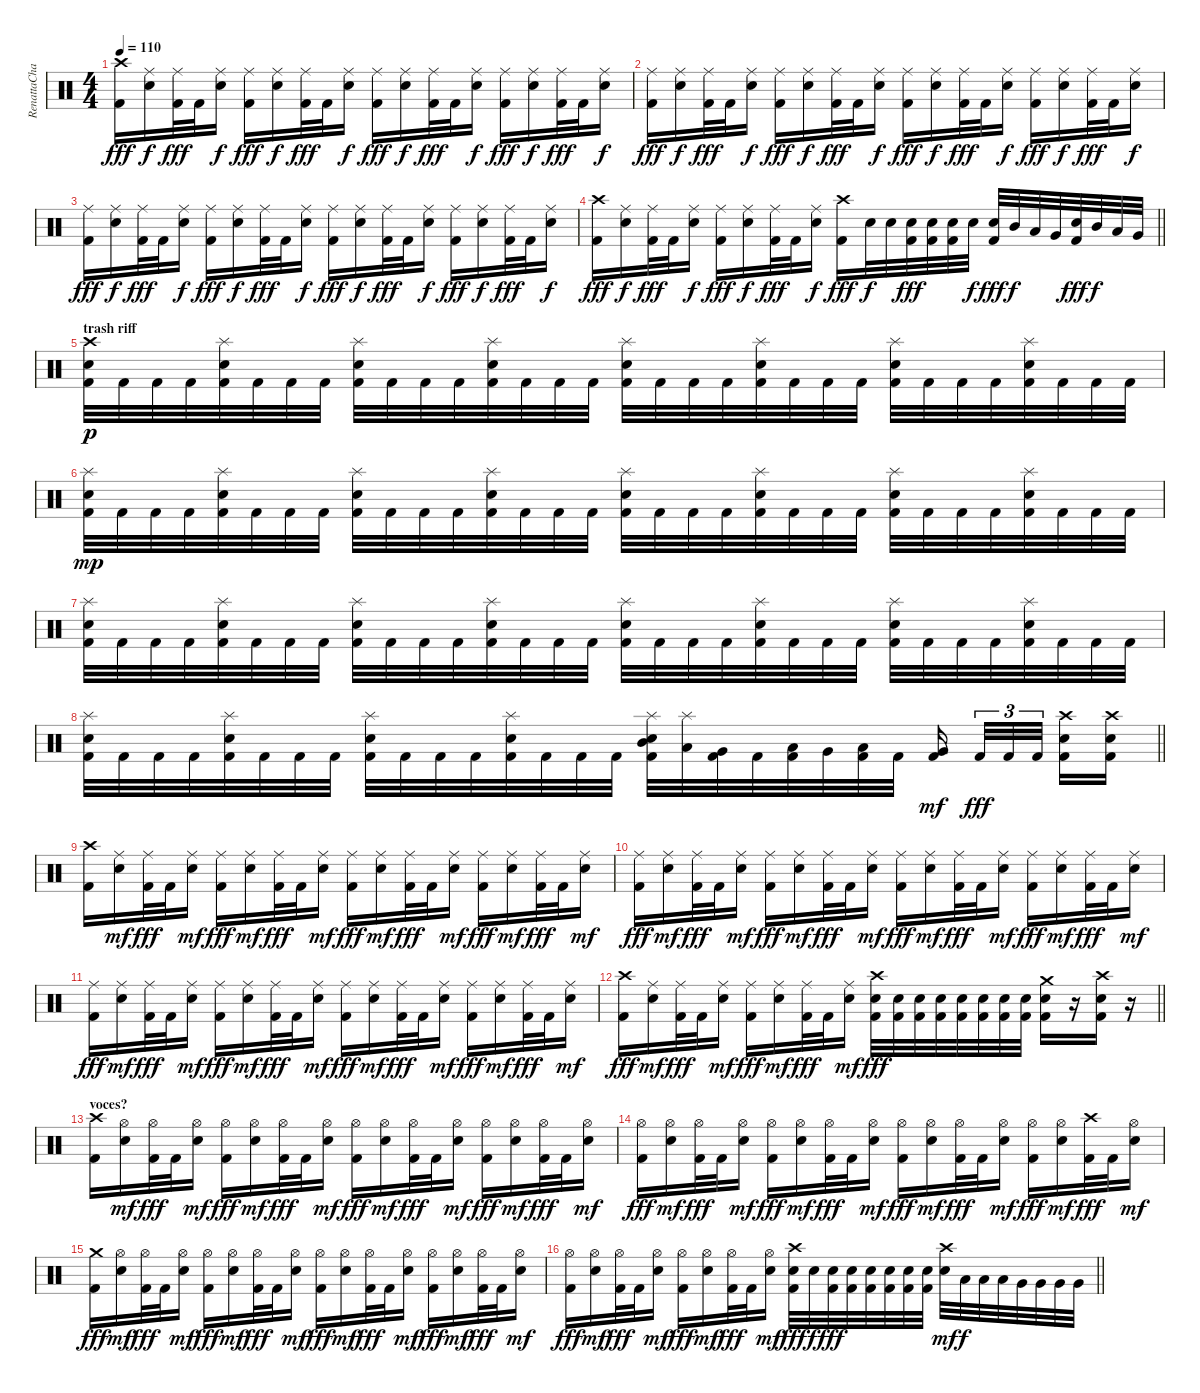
\track ("RenattaCharat" "RenattaCha") {instrument percussion}
\staff {score}
\articulation defaults
\ts (4 4)
\tempo 110
\clef neutral
\ks c
("Crash high (hit)" "Kick (hit) 2").16{dy fff} ("Ride (middle)" "Snare (hit) 2").16{dy f} ("Ride (middle)" "Kick (hit) 2").32{dy fff} "Kick (hit) 2".32 ("Ride (middle)" "Snare (hit) 2").16{dy f} ("Ride (middle)" "Kick (hit) 2").16{dy fff} ("Ride (middle)" "Snare (hit) 2").16{dy f} ("Ride (middle)" "Kick (hit) 2").32{dy fff} "Kick (hit) 2".32 ("Ride (middle)" "Snare (hit) 2").16{dy f} ("Ride (middle)" "Kick (hit) 2").16{dy fff} ("Ride (middle)" "Snare (hit) 2").16{dy f} ("Ride (middle)" "Kick (hit) 2").32{dy fff} "Kick (hit) 2".32 ("Ride (middle)" "Snare (hit) 2").16{dy f} ("Ride (middle)" "Kick (hit) 2").16{dy fff} ("Ride (middle)" "Snare (hit) 2").16{dy f} ("Ride (middle)" "Kick (hit) 2").32{dy fff} "Kick (hit) 2".32 ("Ride (middle)" "Snare (hit) 2").16{dy f} |
("Ride (middle)" "Kick (hit) 2").16{dy fff} ("Ride (middle)" "Snare (hit) 2").16{dy f} ("Ride (middle)" "Kick (hit) 2").32{dy fff} "Kick (hit) 2".32 ("Ride (middle)" "Snare (hit) 2").16{dy f} ("Ride (middle)" "Kick (hit) 2").16{dy fff} ("Ride (middle)" "Snare (hit) 2").16{dy f} ("Ride (middle)" "Kick (hit) 2").32{dy fff} "Kick (hit) 2".32 ("Ride (middle)" "Snare (hit) 2").16{dy f} ("Ride (middle)" "Kick (hit) 2").16{dy fff} ("Ride (middle)" "Snare (hit) 2").16{dy f} ("Ride (middle)" "Kick (hit) 2").32{dy fff} "Kick (hit) 2".32 ("Ride (middle)" "Snare (hit) 2").16{dy f} ("Ride (middle)" "Kick (hit) 2").16{dy fff} ("Ride (middle)" "Snare (hit) 2").16{dy f} ("Ride (middle)" "Kick (hit) 2").32{dy fff} "Kick (hit) 2".32 ("Ride (middle)" "Snare (hit) 2").16{dy f} |
("Ride (middle)" "Kick (hit) 2").16{dy fff} ("Ride (middle)" "Snare (hit) 2").16{dy f} ("Ride (middle)" "Kick (hit) 2").32{dy fff} "Kick (hit) 2".32 ("Ride (middle)" "Snare (hit) 2").16{dy f} ("Ride (middle)" "Kick (hit) 2").16{dy fff} ("Ride (middle)" "Snare (hit) 2").16{dy f} ("Ride (middle)" "Kick (hit) 2").32{dy fff} "Kick (hit) 2".32 ("Ride (middle)" "Snare (hit) 2").16{dy f} ("Ride (middle)" "Kick (hit) 2").16{dy fff} ("Ride (middle)" "Snare (hit) 2").16{dy f} ("Ride (middle)" "Kick (hit) 2").32{dy fff} "Kick (hit) 2".32 ("Ride (middle)" "Snare (hit) 2").16{dy f} ("Ride (middle)" "Kick (hit) 2").16{dy fff} ("Ride (middle)" "Snare (hit) 2").16{dy f} ("Ride (middle)" "Kick (hit) 2").32{dy fff} "Kick (hit) 2".32 ("Ride (middle)" "Snare (hit) 2").16{dy f} |
\barLineRight lightlight
("Crash high (hit)" "Kick (hit) 2").16{dy fff} ("Ride (middle)" "Snare (hit) 2").16{dy f} ("Ride (middle)" "Kick (hit) 2").32{dy fff} "Kick (hit) 2".32 ("Ride (middle)" "Snare (hit) 2").16{dy f} ("Ride (middle)" "Kick (hit) 2").16{dy fff} ("Ride (middle)" "Snare (hit) 2").16{dy f} ("Ride (middle)" "Kick (hit) 2").32{dy fff} "Kick (hit) 2".32 ("Ride (middle)" "Snare (hit) 2").16{dy f} ("Crash high (hit)" "Kick (hit) 2").16{dy fff} "Snare (hit) 2".32{dy f} "Snare (hit) 2".32 ("Snare (hit) 2" "Kick (hit) 2").32{dy fff} ("Snare (hit) 2" "Kick (hit) 2").32 ("Snare (hit) 2" "Kick (hit) 2").32 "Snare (hit) 2".32{dy f} ("Snare (hit) 2" "Kick (hit) 2").32{dy fff} "Mid Tom (hit)".32{dy f} "Low Tom (hit)".32 "Very Low Tom (hit)".32 ("Snare (hit) 2" "Kick (hit) 2").32{dy fff} "Mid Tom (hit)".32{dy f} "Low Tom (hit)".32 "Very Low Tom (hit)".32 |
\section ("" "trash riff")
("Crash high (hit)" "Snare (hit) 2" "Kick (hit) 2").32{dy p} "Kick (hit) 2".32 "Kick (hit) 2".32 "Kick (hit) 2".32 ("Splash (hit)" "Snare (hit) 2" "Kick (hit) 2").32 "Kick (hit) 2".32 "Kick (hit) 2".32 "Kick (hit) 2".32 ("Splash (hit)" "Snare (hit) 2" "Kick (hit) 2").32 "Kick (hit) 2".32 "Kick (hit) 2".32 "Kick (hit) 2".32 ("Splash (hit)" "Snare (hit) 2" "Kick (hit) 2").32 "Kick (hit) 2".32 "Kick (hit) 2".32 "Kick (hit) 2".32 ("Splash (hit)" "Snare (hit) 2" "Kick (hit) 2").32 "Kick (hit) 2".32 "Kick (hit) 2".32 "Kick (hit) 2".32 ("Splash (hit)" "Snare (hit) 2" "Kick (hit) 2").32 "Kick (hit) 2".32 "Kick (hit) 2".32 "Kick (hit) 2".32 ("Splash (hit)" "Snare (hit) 2" "Kick (hit) 2").32 "Kick (hit) 2".32 "Kick (hit) 2".32 "Kick (hit) 2".32 ("Splash (hit)" "Snare (hit) 2" "Kick (hit) 2").32 "Kick (hit) 2".32 "Kick (hit) 2".32 "Kick (hit) 2".32 |
("Splash (hit)" "Snare (hit) 2" "Kick (hit) 2").32{dy mp} "Kick (hit) 2".32 "Kick (hit) 2".32 "Kick (hit) 2".32 ("Splash (hit)" "Snare (hit) 2" "Kick (hit) 2").32 "Kick (hit) 2".32 "Kick (hit) 2".32 "Kick (hit) 2".32 ("Splash (hit)" "Snare (hit) 2" "Kick (hit) 2").32 "Kick (hit) 2".32 "Kick (hit) 2".32 "Kick (hit) 2".32 ("Splash (hit)" "Snare (hit) 2" "Kick (hit) 2").32 "Kick (hit) 2".32 "Kick (hit) 2".32 "Kick (hit) 2".32 ("Splash (hit)" "Snare (hit) 2" "Kick (hit) 2").32 "Kick (hit) 2".32 "Kick (hit) 2".32 "Kick (hit) 2".32 ("Splash (hit)" "Snare (hit) 2" "Kick (hit) 2").32 "Kick (hit) 2".32 "Kick (hit) 2".32 "Kick (hit) 2".32 ("Splash (hit)" "Snare (hit) 2" "Kick (hit) 2").32 "Kick (hit) 2".32 "Kick (hit) 2".32 "Kick (hit) 2".32 ("Splash (hit)" "Snare (hit) 2" "Kick (hit) 2").32 "Kick (hit) 2".32 "Kick (hit) 2".32 "Kick (hit) 2".32 |
("Splash (hit)" "Snare (hit) 2" "Kick (hit) 2").32 "Kick (hit) 2".32 "Kick (hit) 2".32 "Kick (hit) 2".32 ("Splash (hit)" "Snare (hit) 2" "Kick (hit) 2").32 "Kick (hit) 2".32 "Kick (hit) 2".32 "Kick (hit) 2".32 ("Splash (hit)" "Snare (hit) 2" "Kick (hit) 2").32 "Kick (hit) 2".32 "Kick (hit) 2".32 "Kick (hit) 2".32 ("Splash (hit)" "Snare (hit) 2" "Kick (hit) 2").32 "Kick (hit) 2".32 "Kick (hit) 2".32 "Kick (hit) 2".32 ("Splash (hit)" "Snare (hit) 2" "Kick (hit) 2").32 "Kick (hit) 2".32 "Kick (hit) 2".32 "Kick (hit) 2".32 ("Splash (hit)" "Snare (hit) 2" "Kick (hit) 2").32 "Kick (hit) 2".32 "Kick (hit) 2".32 "Kick (hit) 2".32 ("Splash (hit)" "Snare (hit) 2" "Kick (hit) 2").32 "Kick (hit) 2".32 "Kick (hit) 2".32 "Kick (hit) 2".32 ("Splash (hit)" "Snare (hit) 2" "Kick (hit) 2").32 "Kick (hit) 2".32 "Kick (hit) 2".32 "Kick (hit) 2".32 |
\barLineRight lightlight
("Splash (hit)" "Snare (hit) 2" "Kick (hit) 2").32 "Kick (hit) 2".32 "Kick (hit) 2".32 "Kick (hit) 2".32 ("Splash (hit)" "Snare (hit) 2" "Kick (hit) 2").32 "Kick (hit) 2".32 "Kick (hit) 2".32 "Kick (hit) 2".32 ("Splash (hit)" "Snare (hit) 2" "Kick (hit) 2").32 "Kick (hit) 2".32 "Kick (hit) 2".32 "Kick (hit) 2".32 ("Splash (hit)" "Snare (hit) 2" "Kick (hit) 2").32 "Kick (hit) 2".32 "Kick (hit) 2".32 "Kick (hit) 2".32 ("Splash (hit)" "Mid Tom (hit)" "Snare (hit) 2" "Kick (hit) 2").32 ("Splash (hit)" "Low Tom (hit)").32 ("Very Low Tom (hit)" "Kick (hit) 2").32 "Kick (hit) 2".32 ("Low Tom (hit)" "Kick (hit) 2").32 "Very Low Tom (hit)".32 ("Low Floor Tom (hit)" "Kick (hit) 2").32 "Kick (hit) 2".32 ("Very Low Tom (hit)" "Kick (hit) 2").16{dy mf beam splitsecondary} "Kick (hit) 2".32{tu (3 2) dy fff} "Kick (hit) 2".32{tu (3 2)} "Kick (hit) 2".32{tu (3 2) beam splitsecondary} ("Crash high (hit)" "Snare (hit) 2" "Kick (hit) 2").16 ("Crash high (hit)" "Snare (hit) 2" "Kick (hit) 2").16 |
("Crash high (hit)" "Kick (hit) 2").16 ("Ride (middle)" "Snare (hit) 2").16{dy mf} ("Ride (middle)" "Kick (hit) 2").32{dy fff} "Kick (hit) 2".32 ("Ride (middle)" "Snare (hit) 2").16{dy mf} ("Ride (middle)" "Kick (hit) 2").16{dy fff} ("Ride (middle)" "Snare (hit) 2").16{dy mf} ("Ride (middle)" "Kick (hit) 2").32{dy fff} "Kick (hit) 2".32 ("Ride (middle)" "Snare (hit) 2").16{dy mf} ("Ride (middle)" "Kick (hit) 2").16{dy fff} ("Ride (middle)" "Snare (hit) 2").16{dy mf} ("Ride (middle)" "Kick (hit) 2").32{dy fff} "Kick (hit) 2".32 ("Ride (middle)" "Snare (hit) 2").16{dy mf} ("Ride (middle)" "Kick (hit) 2").16{dy fff} ("Ride (middle)" "Snare (hit) 2").16{dy mf} ("Ride (middle)" "Kick (hit) 2").32{dy fff} "Kick (hit) 2".32 ("Ride (middle)" "Snare (hit) 2").16{dy mf} |
("Ride (middle)" "Kick (hit) 2").16{dy fff} ("Ride (middle)" "Snare (hit) 2").16{dy mf} ("Ride (middle)" "Kick (hit) 2").32{dy fff} "Kick (hit) 2".32 ("Ride (middle)" "Snare (hit) 2").16{dy mf} ("Ride (middle)" "Kick (hit) 2").16{dy fff} ("Ride (middle)" "Snare (hit) 2").16{dy mf} ("Ride (middle)" "Kick (hit) 2").32{dy fff} "Kick (hit) 2".32 ("Ride (middle)" "Snare (hit) 2").16{dy mf} ("Ride (middle)" "Kick (hit) 2").16{dy fff} ("Ride (middle)" "Snare (hit) 2").16{dy mf} ("Ride (middle)" "Kick (hit) 2").32{dy fff} "Kick (hit) 2".32 ("Ride (middle)" "Snare (hit) 2").16{dy mf} ("Ride (middle)" "Kick (hit) 2").16{dy fff} ("Ride (middle)" "Snare (hit) 2").16{dy mf} ("Ride (middle)" "Kick (hit) 2").32{dy fff} "Kick (hit) 2".32 ("Ride (middle)" "Snare (hit) 2").16{dy mf} |
("Ride (middle)" "Kick (hit) 2").16{dy fff} ("Ride (middle)" "Snare (hit) 2").16{dy mf} ("Ride (middle)" "Kick (hit) 2").32{dy fff} "Kick (hit) 2".32 ("Ride (middle)" "Snare (hit) 2").16{dy mf} ("Ride (middle)" "Kick (hit) 2").16{dy fff} ("Ride (middle)" "Snare (hit) 2").16{dy mf} ("Ride (middle)" "Kick (hit) 2").32{dy fff} "Kick (hit) 2".32 ("Ride (middle)" "Snare (hit) 2").16{dy mf} ("Ride (middle)" "Kick (hit) 2").16{dy fff} ("Ride (middle)" "Snare (hit) 2").16{dy mf} ("Ride (middle)" "Kick (hit) 2").32{dy fff} "Kick (hit) 2".32 ("Ride (middle)" "Snare (hit) 2").16{dy mf} ("Ride (middle)" "Kick (hit) 2").16{dy fff} ("Ride (middle)" "Snare (hit) 2").16{dy mf} ("Ride (middle)" "Kick (hit) 2").32{dy fff} "Kick (hit) 2".32 ("Ride (middle)" "Snare (hit) 2").16{dy mf} |
\barLineRight lightlight
("Crash high (hit)" "Kick (hit) 2").16{dy fff} ("Ride (middle)" "Snare (hit) 2").16{dy mf} ("Ride (middle)" "Kick (hit) 2").32{dy fff} "Kick (hit) 2".32 ("Ride (middle)" "Snare (hit) 2").16{dy mf} ("Ride (middle)" "Kick (hit) 2").16{dy fff} ("Ride (middle)" "Snare (hit) 2").16{dy mf} ("Ride (middle)" "Kick (hit) 2").32{dy fff} "Kick (hit) 2".32 ("Ride (middle)" "Snare (hit) 2").16{dy mf} ("Crash high (hit)" "Snare (hit) 2" "Kick (hit) 2").32{dy fff} ("Snare (hit) 2" "Kick (hit) 2").32 ("Snare (hit) 2" "Kick (hit) 2").32 ("Snare (hit) 2" "Kick (hit) 2").32 ("Snare (hit) 2" "Kick (hit) 2").32 ("Snare (hit) 2" "Kick (hit) 2").32 ("Snare (hit) 2" "Kick (hit) 2").32 ("Snare (hit) 2" "Kick (hit) 2").32 ("Crash medium (hit)" "Snare (hit) 2" "Kick (hit) 2").16 r.16 ("Crash high (hit)" "Snare (hit) 2" "Kick (hit) 2").16 r.16 |
\section ("" "voces?")
("Crash high (hit)" "Kick (hit) 2").16 ("Hi-Hat (open)" "Snare (hit) 2").16{dy mf} ("Hi-Hat (open)" "Kick (hit) 2").32{dy fff} "Kick (hit) 2".32 ("Hi-Hat (open)" "Snare (hit) 2").16{dy mf} ("Hi-Hat (open)" "Kick (hit) 2").16{dy fff} ("Hi-Hat (open)" "Snare (hit) 2").16{dy mf} ("Hi-Hat (open)" "Kick (hit) 2").32{dy fff} "Kick (hit) 2".32 ("Hi-Hat (open)" "Snare (hit) 2").16{dy mf} ("Hi-Hat (open)" "Kick (hit) 2").16{dy fff} ("Hi-Hat (open)" "Snare (hit) 2").16{dy mf} ("Hi-Hat (open)" "Kick (hit) 2").32{dy fff} "Kick (hit) 2".32 ("Hi-Hat (open)" "Snare (hit) 2").16{dy mf} ("Hi-Hat (open)" "Kick (hit) 2").16{dy fff} ("Hi-Hat (open)" "Snare (hit) 2").16{dy mf} ("Hi-Hat (open)" "Kick (hit) 2").32{dy fff} "Kick (hit) 2".32 ("Hi-Hat (open)" "Snare (hit) 2").16{dy mf} |
("Hi-Hat (open)" "Kick (hit) 2").16{dy fff} ("Hi-Hat (open)" "Snare (hit) 2").16{dy mf} ("Hi-Hat (open)" "Kick (hit) 2").32{dy fff} "Kick (hit) 2".32 ("Hi-Hat (open)" "Snare (hit) 2").16{dy mf} ("Hi-Hat (open)" "Kick (hit) 2").16{dy fff} ("Hi-Hat (open)" "Snare (hit) 2").16{dy mf} ("Hi-Hat (open)" "Kick (hit) 2").32{dy fff} "Kick (hit) 2".32 ("Hi-Hat (open)" "Snare (hit) 2").16{dy mf} ("Hi-Hat (open)" "Kick (hit) 2").16{dy fff} ("Hi-Hat (open)" "Snare (hit) 2").16{dy mf} ("Hi-Hat (open)" "Kick (hit) 2").32{dy fff} "Kick (hit) 2".32 ("Hi-Hat (open)" "Snare (hit) 2").16{dy mf} ("Hi-Hat (open)" "Kick (hit) 2").16{dy fff} ("Hi-Hat (open)" "Snare (hit) 2").16{dy mf} ("Crash high (hit)" "Kick (hit) 2").32{dy fff} "Kick (hit) 2".32 ("Hi-Hat (open)" "Snare (hit) 2").16{dy mf} |
("Crash medium (hit)" "Kick (hit) 2").16{dy fff} ("Hi-Hat (open)" "Snare (hit) 2").16{dy mf} ("Hi-Hat (open)" "Kick (hit) 2").32{dy fff} "Kick (hit) 2".32 ("Hi-Hat (open)" "Snare (hit) 2").16{dy mf} ("Hi-Hat (open)" "Kick (hit) 2").16{dy fff} ("Hi-Hat (open)" "Snare (hit) 2").16{dy mf} ("Hi-Hat (open)" "Kick (hit) 2").32{dy fff} "Kick (hit) 2".32 ("Hi-Hat (open)" "Snare (hit) 2").16{dy mf} ("Hi-Hat (open)" "Kick (hit) 2").16{dy fff} ("Hi-Hat (open)" "Snare (hit) 2").16{dy mf} ("Hi-Hat (open)" "Kick (hit) 2").32{dy fff} "Kick (hit) 2".32 ("Hi-Hat (open)" "Snare (hit) 2").16{dy mf} ("Hi-Hat (open)" "Kick (hit) 2").16{dy fff} ("Hi-Hat (open)" "Snare (hit) 2").16{dy mf} ("Hi-Hat (open)" "Kick (hit) 2").32{dy fff} "Kick (hit) 2".32 ("Hi-Hat (open)" "Snare (hit) 2").16{dy mf} |
\barLineRight lightlight
("Hi-Hat (open)" "Kick (hit) 2").16{dy fff} ("Hi-Hat (open)" "Snare (hit) 2").16{dy mf} ("Hi-Hat (open)" "Kick (hit) 2").32{dy fff} "Kick (hit) 2".32 ("Hi-Hat (open)" "Snare (hit) 2").16{dy mf} ("Hi-Hat (open)" "Kick (hit) 2").16{dy fff} ("Hi-Hat (open)" "Snare (hit) 2").16{dy mf} ("Hi-Hat (open)" "Kick (hit) 2").32{dy fff} "Kick (hit) 2".32 ("Hi-Hat (open)" "Snare (hit) 2").16{dy mf} ("Crash high (hit)" "Snare (hit) 2" "Kick (hit) 2").32{dy fff} "Snare (hit) 2".32{dy f} ("Snare (hit) 2" "Kick (hit) 2").32{dy fff} ("Snare (hit) 2" "Kick (hit) 2").32 ("Snare (hit) 2" "Kick (hit) 2").32 ("Snare (hit) 2" "Kick (hit) 2").32 ("Snare (hit) 2" "Kick (hit) 2").32 ("Snare (hit) 2" "Kick (hit) 2").32 ("Crash high (hit)" "Snare (hit) 2").32{dy mf} "Low Tom (hit)".32{dy f} "Low Tom (hit)".32 "Low Tom (hit)".32 "Very Low Tom (hit)".32 "Very Low Tom (hit)".32 "Very Low Tom (hit)".32 "Very Low Tom (hit)".32
